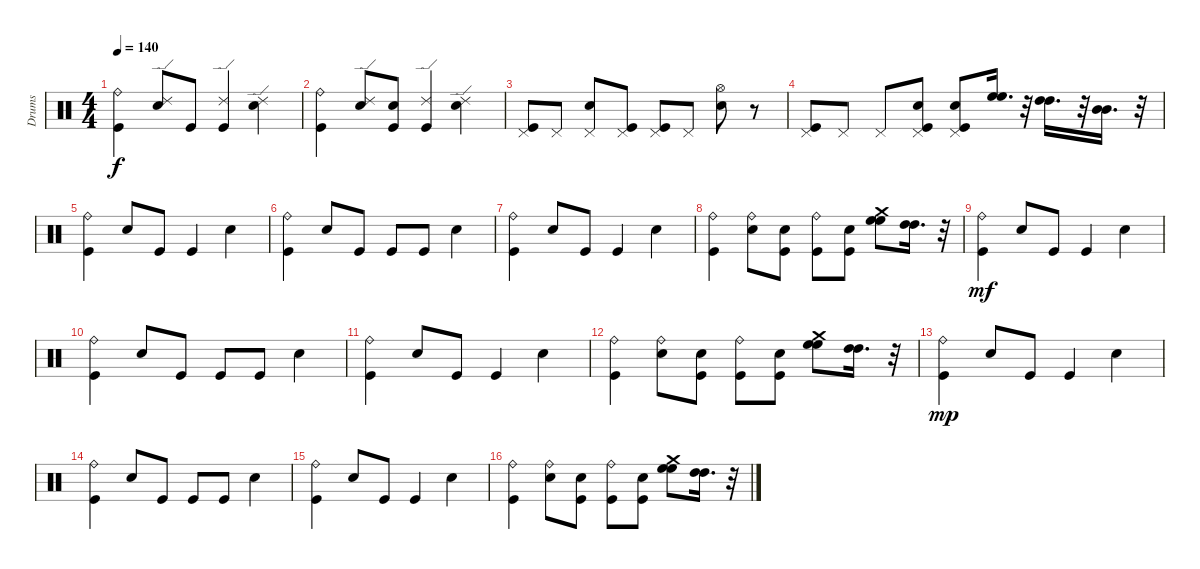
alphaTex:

\track ("Drums" "Drums") {instrument percussion}
\staff {score}
\articulation defaults
\ts (4 4)
\tempo 140
\clef neutral
\ks c
("Ride (bell)" "Kick (hit)").4{dy f} ("Ride (edge) 2" "Electric Snare (hit)").8 "Kick (hit)".8 ("Ride (edge) 2" "Kick (hit)").4 ("Ride (edge) 2" "Electric Snare (hit)").4 |
("Ride (bell)" "Kick (hit)").4 ("Ride (edge) 2" "Electric Snare (hit)").8 ("Electric Snare (hit)" "Kick (hit)").8 ("Ride (edge) 2" "Kick (hit)").4 ("Ride (edge) 2" "Electric Snare (hit)").4 |
("Pedal Hi-Hat (hit)" "Kick (hit)").8 "Pedal Hi-Hat (hit)".8 ("Pedal Hi-Hat (hit)" "Electric Snare (hit)").8 ("Pedal Hi-Hat (hit)" "Kick (hit)").8 ("Pedal Hi-Hat (hit)" "Kick (hit)").8 "Pedal Hi-Hat (hit)".8 ("Hi-Hat (open)" "Electric Snare (hit)").8 r.8 |
("Pedal Hi-Hat (hit)" "Kick (hit)").8 "Pedal Hi-Hat (hit)".8 "Pedal Hi-Hat (hit)".8 ("Pedal Hi-Hat (hit)" "Electric Snare (hit)" "Kick (hit)").8 ("Pedal Hi-Hat (hit)" "Electric Snare (hit)" "Kick (hit)").8 ("High Floor Tom (hit)" "High Floor Tom (hit)").16{d} r.32 ("High Tom (hit)" "High Tom (hit)").16{d} r.32 ("Mid Tom (hit)" "Mid Tom (hit)").16{d} r.32 |
("Ride (bell)" "Kick (hit)").4 "Electric Snare (hit)".8 "Kick (hit)".8 "Kick (hit)".4 "Electric Snare (hit)".4 |
("Ride (bell)" "Kick (hit)").4 "Electric Snare (hit)".8 "Kick (hit)".8 "Kick (hit)".8 "Kick (hit)".8 "Electric Snare (hit)".4 |
("Ride (bell)" "Kick (hit)").4 "Electric Snare (hit)".8 "Kick (hit)".8 "Kick (hit)".4 "Electric Snare (hit)".4 |
("Ride (bell)" "Kick (hit)").4 ("Ride (bell)" "Electric Snare (hit)").8 ("Electric Snare (hit)" "Kick (hit)").8 ("Ride (bell)" "Kick (hit)").8 ("Electric Snare (hit)" "Kick (hit)").8 ("Crash medium (hit)" "High Floor Tom (hit)" "High Floor Tom (hit)").8 ("High Tom (hit)" "High Tom (hit)").16{d} r.32 |
("Ride (bell)" "Kick (hit)").4{dy mf} "Electric Snare (hit)".8 "Kick (hit)".8 "Kick (hit)".4 "Electric Snare (hit)".4 |
("Ride (bell)" "Kick (hit)").4 "Electric Snare (hit)".8 "Kick (hit)".8 "Kick (hit)".8 "Kick (hit)".8 "Electric Snare (hit)".4 |
("Ride (bell)" "Kick (hit)").4 "Electric Snare (hit)".8 "Kick (hit)".8 "Kick (hit)".4 "Electric Snare (hit)".4 |
("Ride (bell)" "Kick (hit)").4 ("Ride (bell)" "Electric Snare (hit)").8 ("Electric Snare (hit)" "Kick (hit)").8 ("Ride (bell)" "Kick (hit)").8 ("Electric Snare (hit)" "Kick (hit)").8 ("Crash medium (hit)" "High Floor Tom (hit)" "High Floor Tom (hit)").8 ("High Tom (hit)" "High Tom (hit)").16{d} r.32 |
("Ride (bell)" "Kick (hit)").4{dy mp} "Electric Snare (hit)".8 "Kick (hit)".8 "Kick (hit)".4 "Electric Snare (hit)".4 |
("Ride (bell)" "Kick (hit)").4 "Electric Snare (hit)".8 "Kick (hit)".8 "Kick (hit)".8 "Kick (hit)".8 "Electric Snare (hit)".4 |
("Ride (bell)" "Kick (hit)").4 "Electric Snare (hit)".8 "Kick (hit)".8 "Kick (hit)".4 "Electric Snare (hit)".4 |
("Ride (bell)" "Kick (hit)").4 ("Ride (bell)" "Electric Snare (hit)").8 ("Electric Snare (hit)" "Kick (hit)").8 ("Ride (bell)" "Kick (hit)").8 ("Electric Snare (hit)" "Kick (hit)").8 ("Crash medium (hit)" "High Floor Tom (hit)" "High Floor Tom (hit)").8 ("High Tom (hit)" "High Tom (hit)").16{d} r.32
